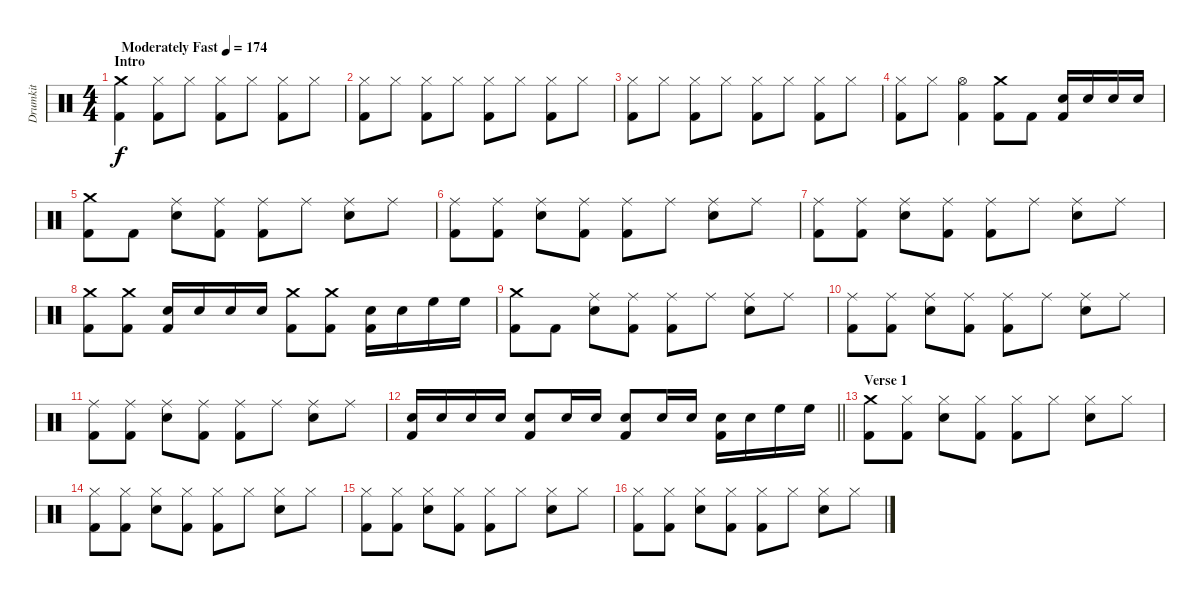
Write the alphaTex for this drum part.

\track ("Drumkit" "Drumkit") {instrument percussion}
\staff {score}
\articulation defaults
\ts (4 4)
\section ("" "Intro")
\tempo (174 "Moderately Fast")
\clef neutral
\ks c
("Crash medium (hit)" "Kick (hit) 2").4{dy f} ("Hi-Hat (closed)" "Kick (hit) 2").8 "Hi-Hat (closed)".8 ("Hi-Hat (closed)" "Kick (hit) 2").8 "Hi-Hat (closed)".8 ("Hi-Hat (closed)" "Kick (hit) 2").8 "Hi-Hat (closed)".8 |
("Hi-Hat (closed)" "Kick (hit) 2").8 "Hi-Hat (closed)".8 ("Hi-Hat (closed)" "Kick (hit) 2").8 "Hi-Hat (closed)".8 ("Hi-Hat (closed)" "Kick (hit) 2").8 "Hi-Hat (closed)".8 ("Hi-Hat (closed)" "Kick (hit) 2").8 "Hi-Hat (closed)".8 |
("Hi-Hat (closed)" "Kick (hit) 2").8 "Hi-Hat (closed)".8 ("Hi-Hat (closed)" "Kick (hit) 2").8 "Hi-Hat (closed)".8 ("Hi-Hat (closed)" "Kick (hit) 2").8 "Hi-Hat (closed)".8 ("Hi-Hat (closed)" "Kick (hit) 2").8 "Hi-Hat (closed)".8 |
("Hi-Hat (closed)" "Kick (hit) 2").8 "Hi-Hat (closed)".8 ("Hi-Hat (open)" "Kick (hit) 2").4 ("Crash medium (hit)" "Kick (hit) 2").8 "Kick (hit) 2".8 ("Snare (hit) 2" "Kick (hit) 2").16 "Snare (hit) 2".16 "Snare (hit) 2".16 "Snare (hit) 2".16 |
("Crash medium (hit)" "Kick (hit) 2").8 "Kick (hit) 2".8 ("Ride (middle)" "Snare (hit) 2").8 ("Ride (middle)" "Kick (hit) 2").8 ("Ride (middle)" "Kick (hit) 2").8 "Ride (middle)".8 ("Ride (middle)" "Snare (hit) 2").8 "Ride (middle)".8 |
("Ride (middle)" "Kick (hit) 2").8 ("Ride (middle)" "Kick (hit) 2").8 ("Ride (middle)" "Snare (hit) 2").8 ("Ride (middle)" "Kick (hit) 2").8 ("Ride (middle)" "Kick (hit) 2").8 "Ride (middle)".8 ("Ride (middle)" "Snare (hit) 2").8 "Ride (middle)".8 |
("Ride (middle)" "Kick (hit) 2").8 ("Ride (middle)" "Kick (hit) 2").8 ("Ride (middle)" "Snare (hit) 2").8 ("Ride (middle)" "Kick (hit) 2").8 ("Ride (middle)" "Kick (hit) 2").8 "Ride (middle)".8 ("Ride (middle)" "Snare (hit) 2").8 "Ride (middle)".8 |
("Crash medium (hit)" "Kick (hit) 2").8 ("Crash medium (hit)" "Kick (hit) 2").8 ("Snare (hit) 2" "Kick (hit) 2").16 "Snare (hit) 2".16 "Snare (hit) 2".16 "Snare (hit) 2".16 ("Crash medium (hit)" "Kick (hit) 2").8 ("Crash medium (hit)" "Kick (hit) 2").8 ("Snare (hit) 2" "Kick (hit) 2").16 "Snare (hit) 2".16 "High Floor Tom (hit)".16 "High Floor Tom (hit)".16 |
("Crash medium (hit)" "Kick (hit) 2").8 "Kick (hit) 2".8 ("Ride (middle)" "Snare (hit) 2").8 ("Ride (middle)" "Kick (hit) 2").8 ("Ride (middle)" "Kick (hit) 2").8 "Ride (middle)".8 ("Ride (middle)" "Snare (hit) 2").8 "Ride (middle)".8 |
("Ride (middle)" "Kick (hit) 2").8 ("Ride (middle)" "Kick (hit) 2").8 ("Ride (middle)" "Snare (hit) 2").8 ("Ride (middle)" "Kick (hit) 2").8 ("Ride (middle)" "Kick (hit) 2").8 "Ride (middle)".8 ("Ride (middle)" "Snare (hit) 2").8 "Ride (middle)".8 |
("Ride (middle)" "Kick (hit) 2").8 ("Ride (middle)" "Kick (hit) 2").8 ("Ride (middle)" "Snare (hit) 2").8 ("Ride (middle)" "Kick (hit) 2").8 ("Ride (middle)" "Kick (hit) 2").8 "Ride (middle)".8 ("Ride (middle)" "Snare (hit) 2").8 "Ride (middle)".8 |
\barLineRight lightlight
("Snare (hit) 2" "Kick (hit) 2").16 "Snare (hit) 2".16 "Snare (hit) 2".16 "Snare (hit) 2".16 ("Snare (hit) 2" "Kick (hit) 2").8 "Snare (hit) 2".16 "Snare (hit) 2".16 ("Snare (hit) 2" "Kick (hit) 2").8 "Snare (hit) 2".16 "Snare (hit) 2".16 ("Snare (hit) 2" "Kick (hit) 2").16 "Snare (hit) 2".16 "High Floor Tom (hit)".16 "High Floor Tom (hit)".16 |
\section ("" "Verse 1")
("Crash medium (hit)" "Kick (hit) 2").8 ("Hi-Hat (closed)" "Kick (hit) 2").8 ("Hi-Hat (closed)" "Snare (hit) 2").8 ("Hi-Hat (closed)" "Kick (hit) 2").8 ("Hi-Hat (closed)" "Kick (hit) 2").8 "Hi-Hat (closed)".8 ("Hi-Hat (closed)" "Snare (hit) 2").8 "Hi-Hat (closed)".8 |
("Hi-Hat (closed)" "Kick (hit) 2").8 ("Hi-Hat (closed)" "Kick (hit) 2").8 ("Hi-Hat (closed)" "Snare (hit) 2").8 ("Hi-Hat (closed)" "Kick (hit) 2").8 ("Hi-Hat (closed)" "Kick (hit) 2").8 "Hi-Hat (closed)".8 ("Hi-Hat (closed)" "Snare (hit) 2").8 "Hi-Hat (closed)".8 |
("Hi-Hat (closed)" "Kick (hit) 2").8 ("Hi-Hat (closed)" "Kick (hit) 2").8 ("Hi-Hat (closed)" "Snare (hit) 2").8 ("Hi-Hat (closed)" "Kick (hit) 2").8 ("Hi-Hat (closed)" "Kick (hit) 2").8 "Hi-Hat (closed)".8 ("Hi-Hat (closed)" "Snare (hit) 2").8 "Hi-Hat (closed)".8 |
("Hi-Hat (closed)" "Kick (hit) 2").8 ("Hi-Hat (closed)" "Kick (hit) 2").8 ("Hi-Hat (closed)" "Snare (hit) 2").8 ("Hi-Hat (closed)" "Kick (hit) 2").8 ("Hi-Hat (closed)" "Kick (hit) 2").8 "Hi-Hat (closed)".8 ("Hi-Hat (closed)" "Snare (hit) 2").8 "Hi-Hat (closed)".8
